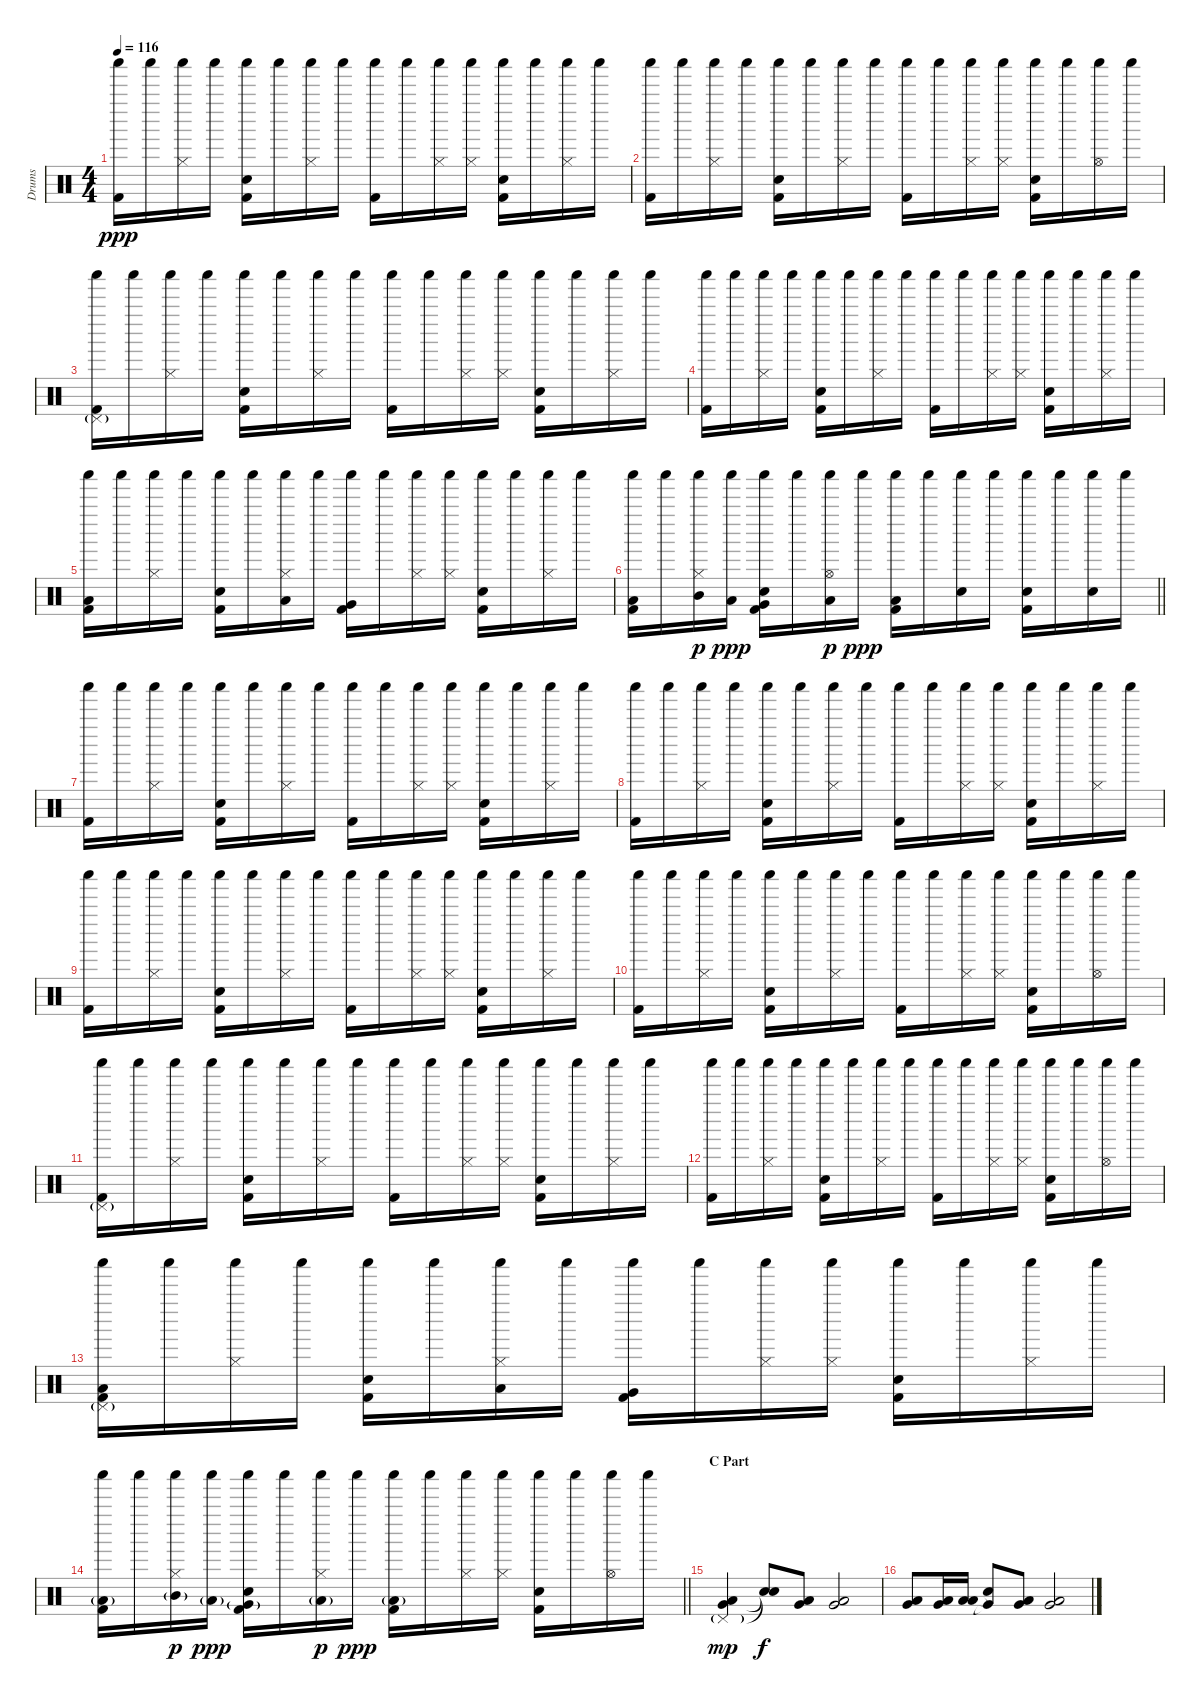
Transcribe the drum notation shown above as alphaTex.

\track ("Drums" "Drums") {mute instrument percussion}
\staff {score}
\articulation defaults
\ts (4 4)
\tempo 116
\clef neutral
\ks c
("Shaker (hit)" "Kick (hit) 2").16{dy ppp} "Shaker (hit)".16 ("Hi-Hat (closed)" "Shaker (hit)").16 "Shaker (hit)".16 ("Shaker (hit)" "Snare (hit) 2" "Kick (hit) 2").16 "Shaker (hit)".16 ("Hi-Hat (closed)" "Shaker (hit)").16 "Shaker (hit)".16 ("Shaker (hit)" "Kick (hit) 2").16 "Shaker (hit)".16 ("Hi-Hat (closed)" "Shaker (hit)").16 ("Hi-Hat (closed)" "Shaker (hit)").16 ("Shaker (hit)" "Snare (hit) 2" "Kick (hit) 2").16 "Shaker (hit)".16 ("Hi-Hat (closed)" "Shaker (hit)").16 "Shaker (hit)".16 |
("Shaker (hit)" "Kick (hit) 2").16 "Shaker (hit)".16 ("Hi-Hat (closed)" "Shaker (hit)").16 "Shaker (hit)".16 ("Shaker (hit)" "Snare (hit) 2" "Kick (hit) 2").16 "Shaker (hit)".16 ("Hi-Hat (closed)" "Shaker (hit)").16 "Shaker (hit)".16 ("Shaker (hit)" "Kick (hit) 2").16 "Shaker (hit)".16 ("Hi-Hat (closed)" "Shaker (hit)").16 ("Hi-Hat (closed)" "Shaker (hit)").16 ("Shaker (hit)" "Snare (hit) 2" "Kick (hit) 2").16 "Shaker (hit)".16 ("Hi-Hat (open)" "Shaker (hit)").16 "Shaker (hit)".16 |
("Pedal Hi-Hat (hit)"{g} "Shaker (hit)" "Kick (hit) 2").16 "Shaker (hit)".16 ("Hi-Hat (closed)" "Shaker (hit)").16 "Shaker (hit)".16 ("Shaker (hit)" "Snare (hit) 2" "Kick (hit) 2").16 "Shaker (hit)".16 ("Hi-Hat (closed)" "Shaker (hit)").16 "Shaker (hit)".16 ("Shaker (hit)" "Kick (hit) 2").16 "Shaker (hit)".16 ("Hi-Hat (closed)" "Shaker (hit)").16 ("Hi-Hat (closed)" "Shaker (hit)").16 ("Shaker (hit)" "Snare (hit) 2" "Kick (hit) 2").16 "Shaker (hit)".16 ("Hi-Hat (closed)" "Shaker (hit)").16 "Shaker (hit)".16 |
("Shaker (hit)" "Kick (hit) 2").16 "Shaker (hit)".16 ("Hi-Hat (closed)" "Shaker (hit)").16 "Shaker (hit)".16 ("Shaker (hit)" "Snare (hit) 2" "Kick (hit) 2").16 "Shaker (hit)".16 ("Hi-Hat (closed)" "Shaker (hit)").16 "Shaker (hit)".16 ("Shaker (hit)" "Kick (hit) 2").16 "Shaker (hit)".16 ("Hi-Hat (closed)" "Shaker (hit)").16 ("Hi-Hat (closed)" "Shaker (hit)").16 ("Shaker (hit)" "Snare (hit) 2" "Kick (hit) 2").16 "Shaker (hit)".16 ("Hi-Hat (closed)" "Shaker (hit)").16 "Shaker (hit)".16 |
("Low Tom (hit)" "Shaker (hit)" "Kick (hit) 2").16 "Shaker (hit)".16 ("Hi-Hat (closed)" "Shaker (hit)").16 "Shaker (hit)".16 ("Shaker (hit)" "Snare (hit) 2" "Kick (hit) 2").16 "Shaker (hit)".16 ("Low Floor Tom (hit)" "Hi-Hat (closed)" "Shaker (hit)").16 "Shaker (hit)".16 ("Very Low Tom (hit)" "Shaker (hit)" "Kick (hit) 2").16 "Shaker (hit)".16 ("Hi-Hat (closed)" "Shaker (hit)").16 ("Hi-Hat (closed)" "Shaker (hit)").16 ("Shaker (hit)" "Snare (hit) 2" "Kick (hit) 2").16 "Shaker (hit)".16 ("Hi-Hat (closed)" "Shaker (hit)").16 "Shaker (hit)".16 |
\barLineRight lightlight
("Low Floor Tom (hit)" "Shaker (hit)" "Kick (hit) 2").16 "Shaker (hit)".16 ("Hi-Hat (closed)" "Mid Tom (hit)" "Shaker (hit)").16{dy p} ("Low Tom (hit)" "Shaker (hit)").16{dy ppp} ("Very Low Tom (hit)" "Shaker (hit)" "Snare (hit) 2" "Kick (hit) 2").16 "Shaker (hit)".16 ("Hi-Hat (open)" "Low Floor Tom (hit)" "Shaker (hit)").16{dy p} "Shaker (hit)".16{dy ppp} ("Low Floor Tom (hit)" "Shaker (hit)" "Kick (hit) 2").16 "Shaker (hit)".16 ("Shaker (hit)" "Snare (hit) 2").16 "Shaker (hit)".16 ("Shaker (hit)" "Snare (hit) 2" "Kick (hit) 2").16 "Shaker (hit)".16 ("Shaker (hit)" "Snare (hit) 2").16 "Shaker (hit)".16 |
("Shaker (hit)" "Kick (hit) 2").16 "Shaker (hit)".16 ("Hi-Hat (closed)" "Shaker (hit)").16 "Shaker (hit)".16 ("Shaker (hit)" "Snare (hit) 2" "Kick (hit) 2").16 "Shaker (hit)".16 ("Hi-Hat (closed)" "Shaker (hit)").16 "Shaker (hit)".16 ("Shaker (hit)" "Kick (hit) 2").16 "Shaker (hit)".16 ("Hi-Hat (closed)" "Shaker (hit)").16 ("Hi-Hat (closed)" "Shaker (hit)").16 ("Shaker (hit)" "Snare (hit) 2" "Kick (hit) 2").16 "Shaker (hit)".16 ("Hi-Hat (closed)" "Shaker (hit)").16 "Shaker (hit)".16 |
("Shaker (hit)" "Kick (hit) 2").16 "Shaker (hit)".16 ("Hi-Hat (closed)" "Shaker (hit)").16 "Shaker (hit)".16 ("Shaker (hit)" "Snare (hit) 2" "Kick (hit) 2").16 "Shaker (hit)".16 ("Hi-Hat (closed)" "Shaker (hit)").16 "Shaker (hit)".16 ("Shaker (hit)" "Kick (hit) 2").16 "Shaker (hit)".16 ("Hi-Hat (closed)" "Shaker (hit)").16 ("Hi-Hat (closed)" "Shaker (hit)").16 ("Shaker (hit)" "Snare (hit) 2" "Kick (hit) 2").16 "Shaker (hit)".16 ("Hi-Hat (closed)" "Shaker (hit)").16 "Shaker (hit)".16 |
("Shaker (hit)" "Kick (hit) 2").16 "Shaker (hit)".16 ("Hi-Hat (closed)" "Shaker (hit)").16 "Shaker (hit)".16 ("Shaker (hit)" "Snare (hit) 2" "Kick (hit) 2").16 "Shaker (hit)".16 ("Hi-Hat (closed)" "Shaker (hit)").16 "Shaker (hit)".16 ("Shaker (hit)" "Kick (hit) 2").16 "Shaker (hit)".16 ("Hi-Hat (closed)" "Shaker (hit)").16 ("Hi-Hat (closed)" "Shaker (hit)").16 ("Shaker (hit)" "Snare (hit) 2" "Kick (hit) 2").16 "Shaker (hit)".16 ("Hi-Hat (closed)" "Shaker (hit)").16 "Shaker (hit)".16 |
("Shaker (hit)" "Kick (hit) 2").16 "Shaker (hit)".16 ("Hi-Hat (closed)" "Shaker (hit)").16 "Shaker (hit)".16 ("Shaker (hit)" "Snare (hit) 2" "Kick (hit) 2").16 "Shaker (hit)".16 ("Hi-Hat (closed)" "Shaker (hit)").16 "Shaker (hit)".16 ("Shaker (hit)" "Kick (hit) 2").16 "Shaker (hit)".16 ("Hi-Hat (closed)" "Shaker (hit)").16 ("Hi-Hat (closed)" "Shaker (hit)").16 ("Shaker (hit)" "Snare (hit) 2" "Kick (hit) 2").16 "Shaker (hit)".16 ("Hi-Hat (open)" "Shaker (hit)").16 "Shaker (hit)".16 |
("Pedal Hi-Hat (hit)"{g} "Shaker (hit)" "Kick (hit) 2").16 "Shaker (hit)".16 ("Hi-Hat (closed)" "Shaker (hit)").16 "Shaker (hit)".16 ("Shaker (hit)" "Snare (hit) 2" "Kick (hit) 2").16 "Shaker (hit)".16 ("Hi-Hat (closed)" "Shaker (hit)").16 "Shaker (hit)".16 ("Shaker (hit)" "Kick (hit) 2").16 "Shaker (hit)".16 ("Hi-Hat (closed)" "Shaker (hit)").16 ("Hi-Hat (closed)" "Shaker (hit)").16 ("Shaker (hit)" "Snare (hit) 2" "Kick (hit) 2").16 "Shaker (hit)".16 ("Hi-Hat (closed)" "Shaker (hit)").16 "Shaker (hit)".16 |
("Shaker (hit)" "Kick (hit) 2").16 "Shaker (hit)".16 ("Hi-Hat (closed)" "Shaker (hit)").16 "Shaker (hit)".16 ("Shaker (hit)" "Snare (hit) 2" "Kick (hit) 2").16 "Shaker (hit)".16 ("Hi-Hat (closed)" "Shaker (hit)").16 "Shaker (hit)".16 ("Shaker (hit)" "Kick (hit) 2").16 "Shaker (hit)".16 ("Hi-Hat (closed)" "Shaker (hit)").16 ("Hi-Hat (closed)" "Shaker (hit)").16 ("Shaker (hit)" "Snare (hit) 2" "Kick (hit) 2").16 "Shaker (hit)".16 ("Hi-Hat (open)" "Shaker (hit)").16 "Shaker (hit)".16 |
("Low Tom (hit)" "Pedal Hi-Hat (hit)"{g} "Shaker (hit)" "Kick (hit) 2").16 "Shaker (hit)".16 ("Hi-Hat (closed)" "Shaker (hit)").16 "Shaker (hit)".16 ("Shaker (hit)" "Snare (hit) 2" "Kick (hit) 2").16 "Shaker (hit)".16 ("Low Floor Tom (hit)" "Hi-Hat (closed)" "Shaker (hit)").16 "Shaker (hit)".16 ("Very Low Tom (hit)" "Shaker (hit)" "Kick (hit) 2").16 "Shaker (hit)".16 ("Hi-Hat (closed)" "Shaker (hit)").16 ("Hi-Hat (closed)" "Shaker (hit)").16 ("Shaker (hit)" "Snare (hit) 2" "Kick (hit) 2").16 "Shaker (hit)".16 ("Hi-Hat (closed)" "Shaker (hit)").16 "Shaker (hit)".16 |
\barLineRight lightlight
("Low Floor Tom (hit)"{g} "Shaker (hit)" "Kick (hit) 2").16 "Shaker (hit)".16 ("Hi-Hat (closed)" "Mid Tom (hit)"{g} "Shaker (hit)").16{dy p} ("Low Tom (hit)"{g} "Shaker (hit)").16{dy ppp} ("Very Low Tom (hit)"{g} "Shaker (hit)" "Snare (hit) 2" "Kick (hit) 2").16 "Shaker (hit)".16 ("Hi-Hat (closed)" "Low Floor Tom (hit)"{g} "Shaker (hit)").16{dy p} "Shaker (hit)".16{dy ppp} ("Low Floor Tom (hit)"{g} "Shaker (hit)" "Kick (hit) 2").16 "Shaker (hit)".16 ("Hi-Hat (closed)" "Shaker (hit)").16 ("Hi-Hat (closed)" "Shaker (hit)").16 ("Shaker (hit)" "Snare (hit) 2" "Kick (hit) 2").16 "Shaker (hit)".16 ("Hi-Hat (open)" "Shaker (hit)").16 "Shaker (hit)".16 |
\section ("" "C Part")
("Pedal Hi-Hat (hit)"{g} "Very Low Tom (hit)" "Low Floor Tom (hit)").4{dy mp} ("Snare (hit)"{t} "Snare (hit)"{t}).8{dy f} ("Very Low Tom (hit)" "Low Floor Tom (hit)").8 ("Very Low Tom (hit)" "Low Floor Tom (hit)").2 |
("Very Low Tom (hit)" "Low Floor Tom (hit)").8 ("Very Low Tom (hit)" "Low Floor Tom (hit)").16 ("Low Tom (hit)" "Low Floor Tom (hit)").16 ("Very Low Tom (hit)"{t} "Snare (hit)"{t}).8 ("Very Low Tom (hit)" "Low Floor Tom (hit)").8 ("Very Low Tom (hit)" "Low Floor Tom (hit)").2
